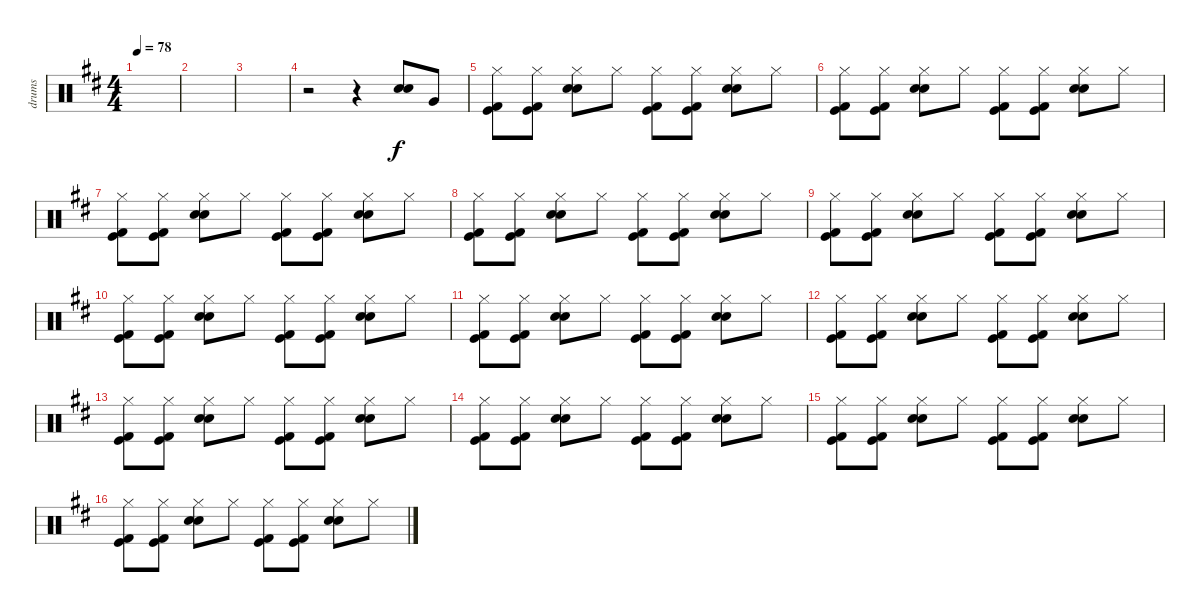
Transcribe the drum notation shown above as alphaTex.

\track ("drums" "drums") {instrument percussion}
\staff {score}
\articulation defaults
\ts (4 4)
\tempo 78
\clef neutral
\ks d
|
|
|
r.2 r.4 ("Snare (hit) 2" "Electric Snare (hit)").8 "Very Low Tom (hit)".8 |
("Kick (hit)" "Kick (hit) 2" "Hi-Hat (closed)").8 ("Kick (hit)" "Kick (hit) 2" "Hi-Hat (closed)").8 ("Electric Snare (hit)" "Snare (hit) 2" "Hi-Hat (closed)").8 "Hi-Hat (closed)".8 ("Kick (hit)" "Kick (hit) 2" "Hi-Hat (closed)").8 ("Kick (hit)" "Kick (hit) 2" "Hi-Hat (closed)").8 ("Electric Snare (hit)" "Snare (hit) 2" "Hi-Hat (closed)").8 "Hi-Hat (closed)".8 |
("Kick (hit)" "Kick (hit) 2" "Hi-Hat (closed)").8 ("Kick (hit)" "Kick (hit) 2" "Hi-Hat (closed)").8 ("Electric Snare (hit)" "Snare (hit) 2" "Hi-Hat (closed)").8 "Hi-Hat (closed)".8 ("Kick (hit)" "Kick (hit) 2" "Hi-Hat (closed)").8 ("Kick (hit)" "Kick (hit) 2" "Hi-Hat (closed)").8 ("Electric Snare (hit)" "Snare (hit) 2" "Hi-Hat (closed)").8 "Hi-Hat (closed)".8 |
("Kick (hit)" "Kick (hit) 2" "Hi-Hat (closed)").8 ("Kick (hit)" "Kick (hit) 2" "Hi-Hat (closed)").8 ("Electric Snare (hit)" "Snare (hit) 2" "Hi-Hat (closed)").8 "Hi-Hat (closed)".8 ("Kick (hit)" "Kick (hit) 2" "Hi-Hat (closed)").8 ("Kick (hit)" "Kick (hit) 2" "Hi-Hat (closed)").8 ("Electric Snare (hit)" "Snare (hit) 2" "Hi-Hat (closed)").8 "Hi-Hat (closed)".8 |
("Kick (hit)" "Kick (hit) 2" "Hi-Hat (closed)").8 ("Kick (hit)" "Kick (hit) 2" "Hi-Hat (closed)").8 ("Electric Snare (hit)" "Snare (hit) 2" "Hi-Hat (closed)").8 "Hi-Hat (closed)".8 ("Kick (hit)" "Kick (hit) 2" "Hi-Hat (closed)").8 ("Kick (hit)" "Kick (hit) 2" "Hi-Hat (closed)").8 ("Electric Snare (hit)" "Snare (hit) 2" "Hi-Hat (closed)").8 "Hi-Hat (closed)".8 |
("Kick (hit)" "Kick (hit) 2" "Hi-Hat (closed)").8 ("Kick (hit)" "Kick (hit) 2" "Hi-Hat (closed)").8 ("Electric Snare (hit)" "Snare (hit) 2" "Hi-Hat (closed)").8 "Hi-Hat (closed)".8 ("Kick (hit)" "Kick (hit) 2" "Hi-Hat (closed)").8 ("Kick (hit)" "Kick (hit) 2" "Hi-Hat (closed)").8 ("Electric Snare (hit)" "Snare (hit) 2" "Hi-Hat (closed)").8 "Hi-Hat (closed)".8 |
("Kick (hit)" "Kick (hit) 2" "Hi-Hat (closed)").8 ("Kick (hit)" "Kick (hit) 2" "Hi-Hat (closed)").8 ("Electric Snare (hit)" "Snare (hit) 2" "Hi-Hat (closed)").8 "Hi-Hat (closed)".8 ("Kick (hit)" "Kick (hit) 2" "Hi-Hat (closed)").8 ("Kick (hit)" "Kick (hit) 2" "Hi-Hat (closed)").8 ("Electric Snare (hit)" "Snare (hit) 2" "Hi-Hat (closed)").8 "Hi-Hat (closed)".8 |
("Kick (hit)" "Kick (hit) 2" "Hi-Hat (closed)").8 ("Kick (hit)" "Kick (hit) 2" "Hi-Hat (closed)").8 ("Electric Snare (hit)" "Snare (hit) 2" "Hi-Hat (closed)").8 "Hi-Hat (closed)".8 ("Kick (hit)" "Kick (hit) 2" "Hi-Hat (closed)").8 ("Kick (hit)" "Kick (hit) 2" "Hi-Hat (closed)").8 ("Electric Snare (hit)" "Snare (hit) 2" "Hi-Hat (closed)").8 "Hi-Hat (closed)".8 |
("Kick (hit)" "Kick (hit) 2" "Hi-Hat (closed)").8 ("Kick (hit)" "Kick (hit) 2" "Hi-Hat (closed)").8 ("Electric Snare (hit)" "Snare (hit) 2" "Hi-Hat (closed)").8 "Hi-Hat (closed)".8 ("Kick (hit)" "Kick (hit) 2" "Hi-Hat (closed)").8 ("Kick (hit)" "Kick (hit) 2" "Hi-Hat (closed)").8 ("Electric Snare (hit)" "Snare (hit) 2" "Hi-Hat (closed)").8 "Hi-Hat (closed)".8 |
("Kick (hit)" "Kick (hit) 2" "Hi-Hat (closed)").8 ("Kick (hit)" "Kick (hit) 2" "Hi-Hat (closed)").8 ("Electric Snare (hit)" "Snare (hit) 2" "Hi-Hat (closed)").8 "Hi-Hat (closed)".8 ("Kick (hit)" "Kick (hit) 2" "Hi-Hat (closed)").8 ("Kick (hit)" "Kick (hit) 2" "Hi-Hat (closed)").8 ("Electric Snare (hit)" "Snare (hit) 2" "Hi-Hat (closed)").8 "Hi-Hat (closed)".8 |
("Kick (hit)" "Kick (hit) 2" "Hi-Hat (closed)").8 ("Kick (hit)" "Kick (hit) 2" "Hi-Hat (closed)").8 ("Electric Snare (hit)" "Snare (hit) 2" "Hi-Hat (closed)").8 "Hi-Hat (closed)".8 ("Kick (hit)" "Kick (hit) 2" "Hi-Hat (closed)").8 ("Kick (hit)" "Kick (hit) 2" "Hi-Hat (closed)").8 ("Electric Snare (hit)" "Snare (hit) 2" "Hi-Hat (closed)").8 "Hi-Hat (closed)".8 |
("Kick (hit)" "Kick (hit) 2" "Hi-Hat (closed)").8 ("Kick (hit)" "Kick (hit) 2" "Hi-Hat (closed)").8 ("Electric Snare (hit)" "Snare (hit) 2" "Hi-Hat (closed)").8 "Hi-Hat (closed)".8 ("Kick (hit)" "Kick (hit) 2" "Hi-Hat (closed)").8 ("Kick (hit)" "Kick (hit) 2" "Hi-Hat (closed)").8 ("Electric Snare (hit)" "Snare (hit) 2" "Hi-Hat (closed)").8 "Hi-Hat (closed)".8 |
("Kick (hit)" "Kick (hit) 2" "Hi-Hat (closed)").8 ("Kick (hit)" "Kick (hit) 2" "Hi-Hat (closed)").8 ("Electric Snare (hit)" "Snare (hit) 2" "Hi-Hat (closed)").8 "Hi-Hat (closed)".8 ("Kick (hit)" "Kick (hit) 2" "Hi-Hat (closed)").8 ("Kick (hit)" "Kick (hit) 2" "Hi-Hat (closed)").8 ("Electric Snare (hit)" "Snare (hit) 2" "Hi-Hat (closed)").8 "Hi-Hat (closed)".8
